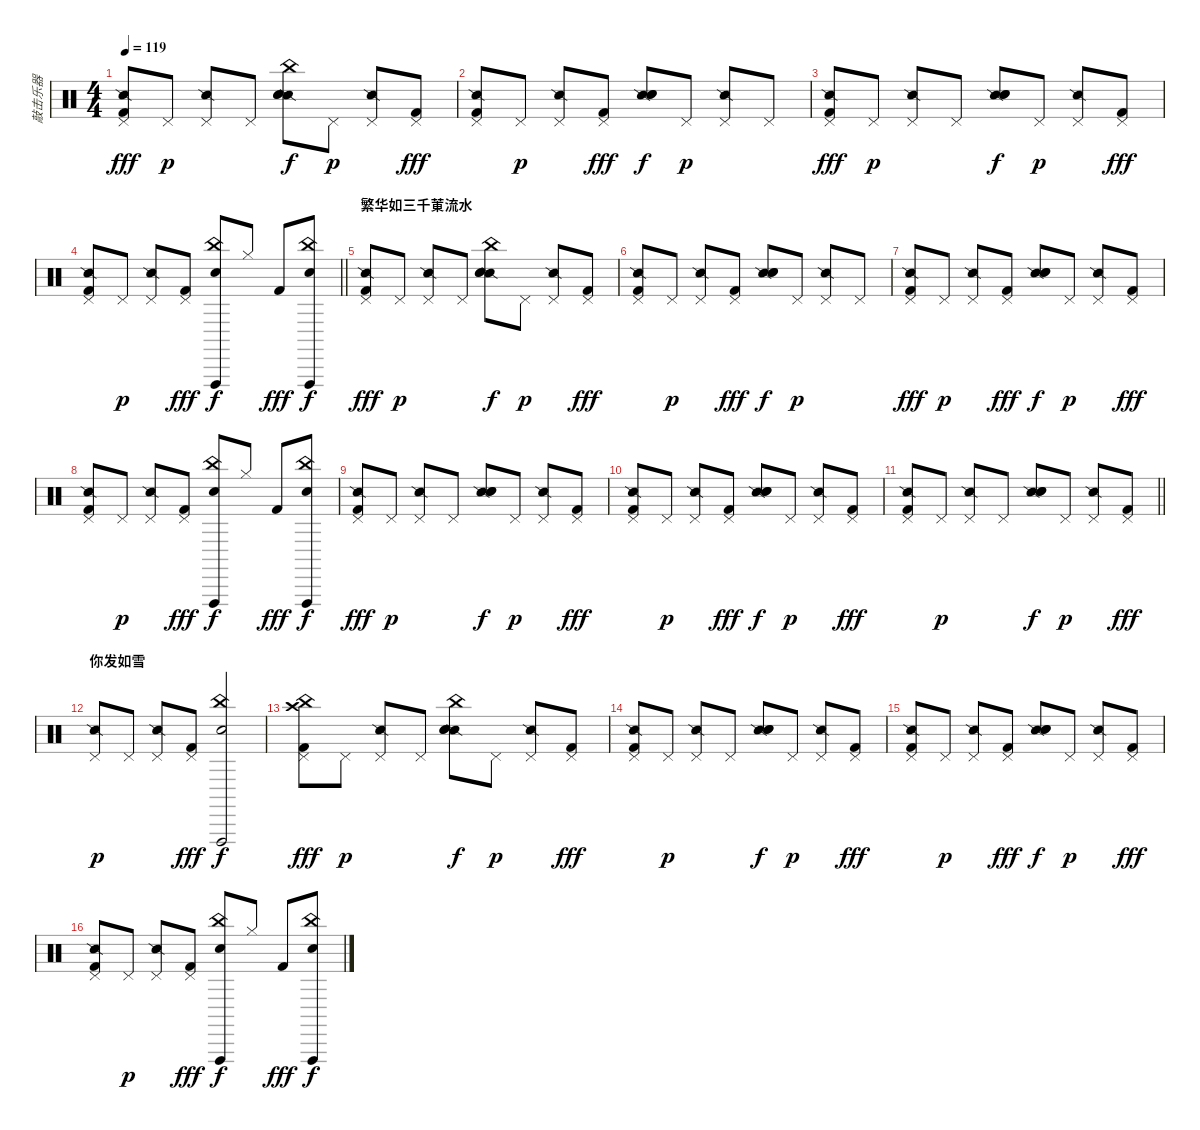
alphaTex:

\track ("敲击乐器" "敲击乐器") {instrument percussion}
\staff {score}
\articulation defaults
\ts (4 4)
\tempo 119
\clef neutral
\ks c
("Snare (side stick) 2" "Pedal Hi-Hat (hit)" "Kick (hit) 2").8{dy fff} "Pedal Hi-Hat (hit)".8{dy p} ("Snare (side stick) 2" "Pedal Hi-Hat (hit)").8 "Pedal Hi-Hat (hit)".8 ("Snare (side stick) 2" "Snare (hit) 2" "Hand Clap (hit)" "China (hit)").8{dy f} "Pedal Hi-Hat (hit)".8{dy p} ("Snare (side stick) 2" "Pedal Hi-Hat (hit)").8 ("Pedal Hi-Hat (hit)" "Kick (hit) 2").8{dy fff} |
("Snare (side stick) 2" "Pedal Hi-Hat (hit)" "Kick (hit) 2").8 "Pedal Hi-Hat (hit)".8{dy p} ("Snare (side stick) 2" "Pedal Hi-Hat (hit)").8 ("Pedal Hi-Hat (hit)" "Kick (hit) 2").8{dy fff} ("Snare (side stick) 2" "Snare (hit) 2" "Hand Clap (hit)").8{dy f} "Pedal Hi-Hat (hit)".8{dy p} ("Snare (side stick) 2" "Pedal Hi-Hat (hit)").8 "Pedal Hi-Hat (hit)".8 |
("Snare (side stick) 2" "Pedal Hi-Hat (hit)" "Kick (hit) 2").8{dy fff} "Pedal Hi-Hat (hit)".8{dy p} ("Snare (side stick) 2" "Pedal Hi-Hat (hit)").8 "Pedal Hi-Hat (hit)".8 ("Snare (side stick) 2" "Snare (hit) 2" "Hand Clap (hit)").8{dy f} "Pedal Hi-Hat (hit)".8{dy p} ("Snare (side stick) 2" "Pedal Hi-Hat (hit)").8 ("Pedal Hi-Hat (hit)" "Kick (hit) 2").8{dy fff} |
\barLineRight lightlight
("Snare (side stick) 2" "Pedal Hi-Hat (hit)" "Kick (hit) 2").8 "Pedal Hi-Hat (hit)".8{dy p} ("Snare (side stick) 2" "Pedal Hi-Hat (hit)").8 ("Pedal Hi-Hat (hit)" "Kick (hit) 2").8{dy fff} ("China (hit)" "Vibraslap (hit)" "Hand Clap (hit)").8{dy f} "Hi-Hat (closed)".8 "Kick (hit) 2".8{dy fff} ("China (hit)" "Vibraslap (hit)" "Hand Clap (hit)").8{dy f} |
\section ("" "繁华如三千菄流水")
("Snare (side stick) 2" "Pedal Hi-Hat (hit)" "Kick (hit) 2").8{dy fff} "Pedal Hi-Hat (hit)".8{dy p} ("Snare (side stick) 2" "Pedal Hi-Hat (hit)").8 "Pedal Hi-Hat (hit)".8 ("Snare (side stick) 2" "Snare (hit) 2" "Hand Clap (hit)" "China (hit)").8{dy f} "Pedal Hi-Hat (hit)".8{dy p} ("Snare (side stick) 2" "Pedal Hi-Hat (hit)").8 ("Pedal Hi-Hat (hit)" "Kick (hit) 2").8{dy fff} |
("Snare (side stick) 2" "Pedal Hi-Hat (hit)" "Kick (hit) 2").8 "Pedal Hi-Hat (hit)".8{dy p} ("Snare (side stick) 2" "Pedal Hi-Hat (hit)").8 ("Pedal Hi-Hat (hit)" "Kick (hit) 2").8{dy fff} ("Snare (side stick) 2" "Snare (hit) 2" "Hand Clap (hit)").8{dy f} "Pedal Hi-Hat (hit)".8{dy p} ("Snare (side stick) 2" "Pedal Hi-Hat (hit)").8 "Pedal Hi-Hat (hit)".8 |
("Snare (side stick) 2" "Pedal Hi-Hat (hit)" "Kick (hit) 2").8{dy fff} "Pedal Hi-Hat (hit)".8{dy p} ("Snare (side stick) 2" "Pedal Hi-Hat (hit)").8 ("Pedal Hi-Hat (hit)" "Kick (hit) 2").8{dy fff} ("Snare (side stick) 2" "Snare (hit) 2" "Hand Clap (hit)").8{dy f} "Pedal Hi-Hat (hit)".8{dy p} ("Snare (side stick) 2" "Pedal Hi-Hat (hit)").8 ("Pedal Hi-Hat (hit)" "Kick (hit) 2").8{dy fff} |
("Snare (side stick) 2" "Pedal Hi-Hat (hit)" "Kick (hit) 2").8 "Pedal Hi-Hat (hit)".8{dy p} ("Snare (side stick) 2" "Pedal Hi-Hat (hit)").8 ("Pedal Hi-Hat (hit)" "Kick (hit) 2").8{dy fff} ("China (hit)" "Vibraslap (hit)" "Hand Clap (hit)").8{dy f} "Hi-Hat (closed)".8 "Kick (hit) 2".8{dy fff} ("China (hit)" "Vibraslap (hit)" "Hand Clap (hit)").8{dy f} |
("Snare (side stick) 2" "Pedal Hi-Hat (hit)" "Kick (hit) 2").8{dy fff} "Pedal Hi-Hat (hit)".8{dy p} ("Snare (side stick) 2" "Pedal Hi-Hat (hit)").8 "Pedal Hi-Hat (hit)".8 ("Snare (side stick) 2" "Snare (hit) 2" "Hand Clap (hit)").8{dy f} "Pedal Hi-Hat (hit)".8{dy p} ("Snare (side stick) 2" "Pedal Hi-Hat (hit)").8 ("Pedal Hi-Hat (hit)" "Kick (hit) 2").8{dy fff} |
("Snare (side stick) 2" "Pedal Hi-Hat (hit)" "Kick (hit) 2").8 "Pedal Hi-Hat (hit)".8{dy p} ("Snare (side stick) 2" "Pedal Hi-Hat (hit)").8 ("Pedal Hi-Hat (hit)" "Kick (hit) 2").8{dy fff} ("Snare (side stick) 2" "Snare (hit) 2" "Hand Clap (hit)").8{dy f} "Pedal Hi-Hat (hit)".8{dy p} ("Snare (side stick) 2" "Pedal Hi-Hat (hit)").8 ("Pedal Hi-Hat (hit)" "Kick (hit) 2").8{dy fff} |
\barLineRight lightlight
("Snare (side stick) 2" "Pedal Hi-Hat (hit)" "Kick (hit) 2").8 "Pedal Hi-Hat (hit)".8{dy p} ("Snare (side stick) 2" "Pedal Hi-Hat (hit)").8 "Pedal Hi-Hat (hit)".8 ("Snare (side stick) 2" "Snare (hit) 2" "Hand Clap (hit)").8{dy f} "Pedal Hi-Hat (hit)".8{dy p} ("Snare (side stick) 2" "Pedal Hi-Hat (hit)").8 ("Pedal Hi-Hat (hit)" "Kick (hit) 2").8{dy fff} |
\section ("" "你发如雪")
("Snare (side stick) 2" "Pedal Hi-Hat (hit)").8{dy p} "Pedal Hi-Hat (hit)".8 ("Snare (side stick) 2" "Pedal Hi-Hat (hit)").8 ("Pedal Hi-Hat (hit)" "Kick (hit) 2").8{dy fff} ("China (hit)" "Vibraslap (hit)" "Hand Clap (hit)").2{dy f} |
("China (hit)" "Crash high (hit)" "Pedal Hi-Hat (hit)" "Kick (hit) 2").8{dy fff} "Pedal Hi-Hat (hit)".8{dy p} ("Snare (side stick) 2" "Pedal Hi-Hat (hit)").8 "Pedal Hi-Hat (hit)".8 ("Snare (side stick) 2" "Snare (hit) 2" "Hand Clap (hit)" "China (hit)").8{dy f} "Pedal Hi-Hat (hit)".8{dy p} ("Snare (side stick) 2" "Pedal Hi-Hat (hit)").8 ("Pedal Hi-Hat (hit)" "Kick (hit) 2").8{dy fff} |
("Snare (side stick) 2" "Pedal Hi-Hat (hit)" "Kick (hit) 2").8 "Pedal Hi-Hat (hit)".8{dy p} ("Snare (side stick) 2" "Pedal Hi-Hat (hit)").8 "Pedal Hi-Hat (hit)".8 ("Snare (side stick) 2" "Snare (hit) 2" "Hand Clap (hit)").8{dy f} "Pedal Hi-Hat (hit)".8{dy p} ("Snare (side stick) 2" "Pedal Hi-Hat (hit)").8 ("Pedal Hi-Hat (hit)" "Kick (hit) 2").8{dy fff} |
("Snare (side stick) 2" "Pedal Hi-Hat (hit)" "Kick (hit) 2").8 "Pedal Hi-Hat (hit)".8{dy p} ("Snare (side stick) 2" "Pedal Hi-Hat (hit)").8 ("Pedal Hi-Hat (hit)" "Kick (hit) 2").8{dy fff} ("Snare (side stick) 2" "Snare (hit) 2" "Hand Clap (hit)").8{dy f} "Pedal Hi-Hat (hit)".8{dy p} ("Snare (side stick) 2" "Pedal Hi-Hat (hit)").8 ("Pedal Hi-Hat (hit)" "Kick (hit) 2").8{dy fff} |
("Snare (side stick) 2" "Pedal Hi-Hat (hit)" "Kick (hit) 2").8 "Pedal Hi-Hat (hit)".8{dy p} ("Snare (side stick) 2" "Pedal Hi-Hat (hit)").8 ("Pedal Hi-Hat (hit)" "Kick (hit) 2").8{dy fff} ("China (hit)" "Vibraslap (hit)" "Hand Clap (hit)").8{dy f} "Hi-Hat (closed)".8 "Kick (hit) 2".8{dy fff} ("China (hit)" "Vibraslap (hit)" "Hand Clap (hit)").8{dy f}
